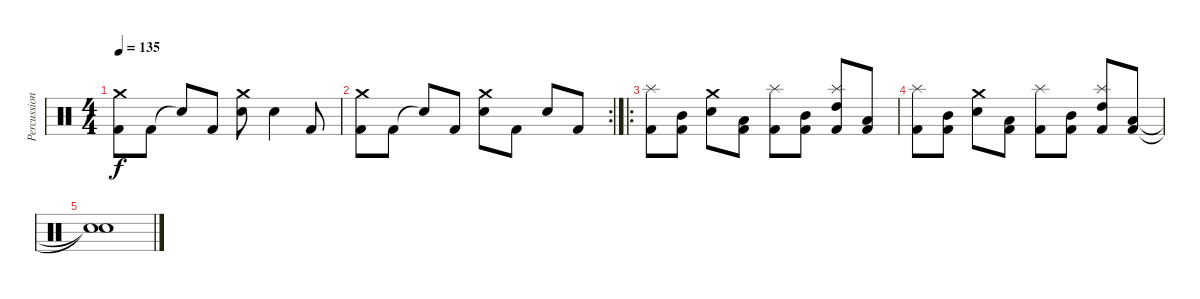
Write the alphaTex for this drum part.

\track ("Percussion" "Percussion") {instrument percussion}
\staff {score}
\articulation defaults
\ts (4 4)
\tempo 135
\clef neutral
\ks c
("Kick (hit) 2" "Crash medium (hit)").8{dy f} "Kick (hit) 2".8 "Snare (hit)"{t}.8 "Kick (hit) 2".8 ("Electric Snare (hit)" "Crash medium (hit)").8 "Electric Snare (hit)".4 "Kick (hit) 2".8 |
\rc 2
("Kick (hit) 2" "Crash medium (hit)").8 "Kick (hit) 2".8 "Snare (hit)"{t}.8 "Kick (hit) 2".8 ("Electric Snare (hit)" "Crash medium (hit)").8 "Kick (hit) 2".8 "Electric Snare (hit)".8 "Kick (hit) 2".8 |
\ro
("Kick (hit) 2" "Splash (hit)").8 ("Kick (hit) 2" "Mid Tom (hit)").8 ("Electric Snare (hit)" "Crash medium (hit)").8 ("Kick (hit) 2" "Low Tom (hit)").8 ("Kick (hit) 2" "Splash (hit)").8 ("Kick (hit) 2" "Mid Tom (hit)").8 ("Kick (hit) 2" "High Tom (hit)" "Splash (hit)").8 ("Kick (hit) 2" "Low Tom (hit)").8 |
("Kick (hit) 2" "Splash (hit)").8 ("Kick (hit) 2" "Mid Tom (hit)").8 ("Electric Snare (hit)" "Crash medium (hit)").8 ("Kick (hit) 2" "Low Tom (hit)").8 ("Kick (hit) 2" "Splash (hit)").8 ("Kick (hit) 2" "Mid Tom (hit)").8 ("Kick (hit) 2" "High Tom (hit)" "Splash (hit)").8 ("Kick (hit) 2" "Low Tom (hit)").8 |
("Snare (hit)"{t} "Snare (hit)"{t}).1
